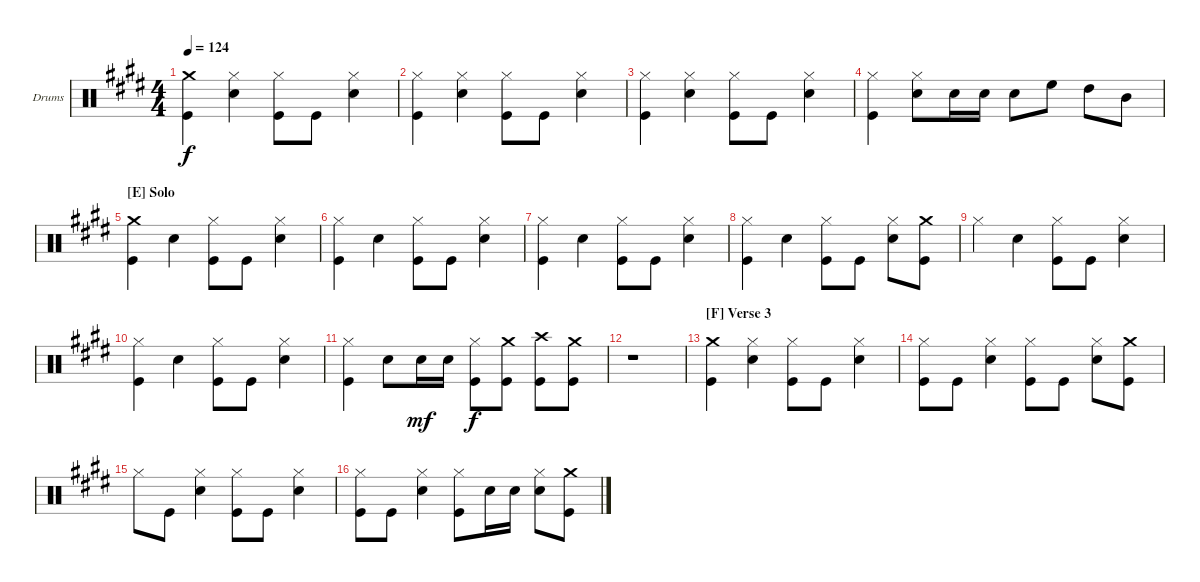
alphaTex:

\defaultSystemsLayout 4
\bracketExtendMode groupsimilarinstruments
\firstSystemTrackNameOrientation horizontal
\otherSystemsTrackNameOrientation horizontal
\track ("Drumkit" "Drums") {instrument percussion}
\staff {score}
\articulation defaults
\ts (4 4)
\tempo 124
\clef neutral
\ks e
("Crash medium (hit)" "Kick (hit)").4{dy f} ("Hi-Hat (closed)" "Snare (hit) 2").4 ("Hi-Hat (closed)" "Kick (hit)").8 "Kick (hit)".8 ("Hi-Hat (closed)" "Snare (hit) 2").4 |
("Hi-Hat (closed)" "Kick (hit)").4 ("Hi-Hat (closed)" "Snare (hit) 2").4 ("Hi-Hat (closed)" "Kick (hit)").8 "Kick (hit)".8 ("Hi-Hat (closed)" "Snare (hit) 2").4 |
("Hi-Hat (closed)" "Kick (hit)").4 ("Hi-Hat (closed)" "Snare (hit) 2").4 ("Hi-Hat (closed)" "Kick (hit)").8 "Kick (hit)".8 ("Hi-Hat (closed)" "Snare (hit) 2").4 |
("Hi-Hat (closed)" "Kick (hit)").4 ("Hi-Hat (closed)" "Snare (hit) 2").8 "Snare (hit) 2".16 "Snare (hit) 2".16 "Snare (hit) 2".8 "High Floor Tom (hit)".8 "High Tom (hit)".8 "Mid Tom (hit)".8 |
\section ("E" "Solo")
("Crash medium (hit)" "Kick (hit)").4 "Snare (hit) 2".4 ("Hi-Hat (closed)" "Kick (hit)").8 "Kick (hit)".8 ("Hi-Hat (closed)" "Snare (hit) 2").4 |
("Hi-Hat (closed)" "Kick (hit)").4 "Snare (hit) 2".4 ("Hi-Hat (closed)" "Kick (hit)").8 "Kick (hit)".8 ("Hi-Hat (closed)" "Snare (hit) 2").4 |
("Hi-Hat (closed)" "Kick (hit)").4 "Snare (hit) 2".4 ("Hi-Hat (closed)" "Kick (hit)").8 "Kick (hit)".8 ("Hi-Hat (closed)" "Snare (hit) 2").4 |
("Hi-Hat (closed)" "Kick (hit)").4 "Snare (hit) 2".4 ("Hi-Hat (closed)" "Kick (hit)").8 "Kick (hit)".8 ("Hi-Hat (closed)" "Snare (hit) 2").8 ("Crash medium (hit)" "Kick (hit)").8 |
"Hi-Hat (closed)".4 "Snare (hit) 2".4 ("Hi-Hat (closed)" "Kick (hit)").8 "Kick (hit)".8 ("Hi-Hat (closed)" "Snare (hit) 2").4 |
("Hi-Hat (closed)" "Kick (hit)").4 "Snare (hit) 2".4 ("Hi-Hat (closed)" "Kick (hit)").8 "Kick (hit)".8 ("Hi-Hat (closed)" "Snare (hit) 2").4 |
("Hi-Hat (closed)" "Kick (hit)").4 "Snare (hit) 2".8 "Snare (hit) 2".16{dy mf} "Snare (hit) 2".16 ("Hi-Hat (closed)" "Kick (hit)").8{dy f} ("Crash medium (hit)" "Kick (hit)").8 ("Crash high (hit)" "Kick (hit)").8 ("Crash medium (hit)" "Kick (hit)").8 |
r.1 |
\section ("F" "Verse 3")
("Crash medium (hit)" "Kick (hit)").4 ("Hi-Hat (closed)" "Snare (hit) 2").4 ("Hi-Hat (closed)" "Kick (hit)").8 "Kick (hit)".8 ("Hi-Hat (closed)" "Snare (hit) 2").4 |
("Hi-Hat (closed)" "Kick (hit)").8 "Kick (hit)".8 ("Hi-Hat (closed)" "Snare (hit) 2").4 ("Hi-Hat (closed)" "Kick (hit)").8 "Kick (hit)".8 ("Hi-Hat (closed)" "Snare (hit) 2").8 ("Crash medium (hit)" "Kick (hit)").8 |
"Hi-Hat (closed)".8 "Kick (hit)".8 ("Hi-Hat (closed)" "Snare (hit) 2").4 ("Hi-Hat (closed)" "Kick (hit)").8 "Kick (hit)".8 ("Hi-Hat (closed)" "Snare (hit) 2").4 |
("Hi-Hat (closed)" "Kick (hit)").8 "Kick (hit)".8 ("Hi-Hat (closed)" "Snare (hit) 2").4 ("Hi-Hat (closed)" "Kick (hit)").8 "Snare (hit) 2".16 "Snare (hit) 2".16 ("Hi-Hat (closed)" "Snare (hit) 2").8 ("Crash medium (hit)" "Kick (hit)").8
